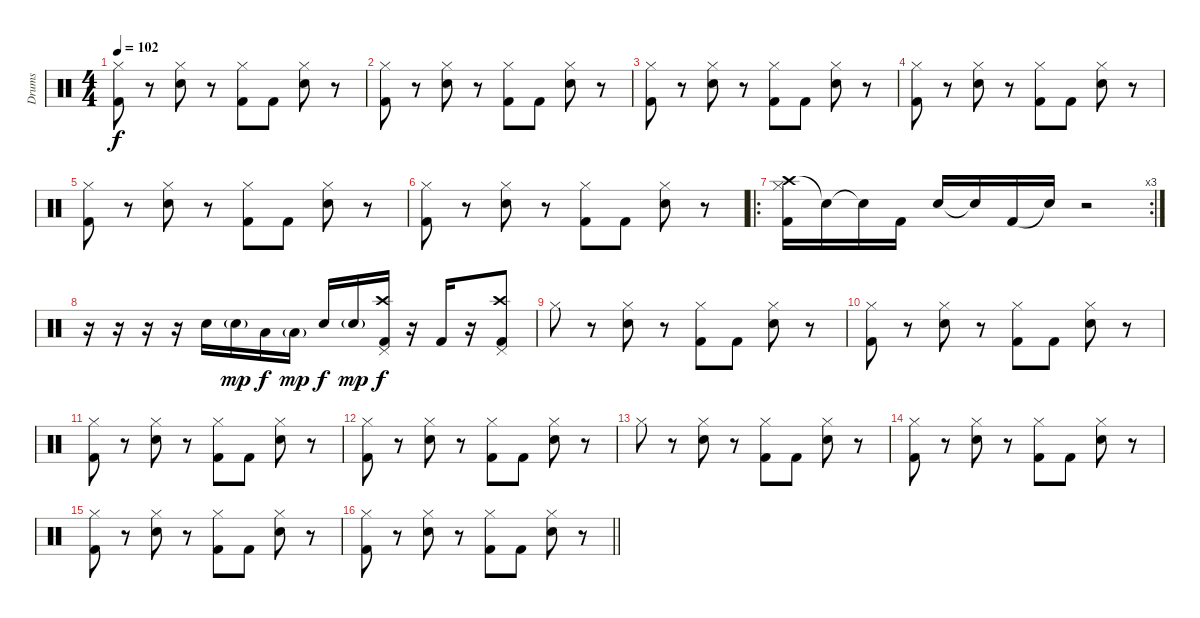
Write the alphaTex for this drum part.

\track ("Drums" "Drums") {instrument percussion}
\staff {score}
\articulation defaults
\ts (4 4)
\tempo 102
\clef neutral
\ks c
("Hi-Hat (closed)" "Kick (hit) 2").8{dy f} r.8 ("Hi-Hat (closed)" "Snare (hit) 2").8 r.8 ("Hi-Hat (closed)" "Kick (hit) 2").8 "Kick (hit) 2".8 ("Hi-Hat (closed)" "Snare (hit) 2").8 r.8 |
("Hi-Hat (closed)" "Kick (hit) 2").8 r.8 ("Hi-Hat (closed)" "Snare (hit) 2").8 r.8 ("Hi-Hat (closed)" "Kick (hit) 2").8 "Kick (hit) 2".8 ("Hi-Hat (closed)" "Snare (hit) 2").8 r.8 |
("Hi-Hat (closed)" "Kick (hit) 2").8 r.8 ("Hi-Hat (closed)" "Snare (hit) 2").8 r.8 ("Hi-Hat (closed)" "Kick (hit) 2").8 "Kick (hit) 2".8 ("Hi-Hat (closed)" "Snare (hit) 2").8 r.8 |
("Hi-Hat (closed)" "Kick (hit) 2").8 r.8 ("Hi-Hat (closed)" "Snare (hit) 2").8 r.8 ("Hi-Hat (closed)" "Kick (hit) 2").8 "Kick (hit) 2".8 ("Hi-Hat (closed)" "Snare (hit) 2").8 r.8 |
("Hi-Hat (closed)" "Kick (hit) 2").8 r.8 ("Hi-Hat (closed)" "Snare (hit) 2").8 r.8 ("Hi-Hat (closed)" "Kick (hit) 2").8 "Kick (hit) 2".8 ("Hi-Hat (closed)" "Snare (hit) 2").8 r.8 |
("Hi-Hat (closed)" "Kick (hit) 2").8 r.8 ("Hi-Hat (closed)" "Snare (hit) 2").8 r.8 ("Hi-Hat (closed)" "Kick (hit) 2").8 "Kick (hit) 2".8 ("Hi-Hat (closed)" "Snare (hit) 2").8 r.8 |
\ro
\rc 3
("Crash high (hit)" "Hi-Hat (closed)" "Kick (hit) 2").16 "Snare (hit)"{t}.16 "Snare (hit)"{t}.16 "Kick (hit) 2".16 "Snare (hit) 2".16 "Snare (hit)"{t}.16 "Kick (hit) 2".16 "Snare (hit)"{t}.16 r.2 |
r.16 r.16 r.16 r.16 "Snare (hit) 2".16 "Snare (hit) 2"{g}.16{dy mp} "Low Tom (hit)".16{dy f} "Low Tom (hit)"{g}.16{dy mp} "Snare (hit) 2".16{dy f} "Snare (hit) 2"{g}.16{dy mp} ("Crash high (hit)" "Pedal Hi-Hat (hit)" "Kick (hit) 2").16{dy f} r.16 "Kick (hit) 2".16 r.16 ("Crash high (hit)" "Pedal Hi-Hat (hit)" "Kick (hit) 2").8 |
"Hi-Hat (closed)".8 r.8 ("Hi-Hat (closed)" "Snare (hit) 2").8 r.8 ("Hi-Hat (closed)" "Kick (hit) 2").8 "Kick (hit) 2".8 ("Hi-Hat (closed)" "Snare (hit) 2").8 r.8 |
("Hi-Hat (closed)" "Kick (hit) 2").8 r.8 ("Hi-Hat (closed)" "Snare (hit) 2").8 r.8 ("Hi-Hat (closed)" "Kick (hit) 2").8 "Kick (hit) 2".8 ("Hi-Hat (closed)" "Snare (hit) 2").8 r.8 |
("Hi-Hat (closed)" "Kick (hit) 2").8 r.8 ("Hi-Hat (closed)" "Snare (hit) 2").8 r.8 ("Hi-Hat (closed)" "Kick (hit) 2").8 "Kick (hit) 2".8 ("Hi-Hat (closed)" "Snare (hit) 2").8 r.8 |
("Hi-Hat (closed)" "Kick (hit) 2").8 r.8 ("Hi-Hat (closed)" "Snare (hit) 2").8 r.8 ("Hi-Hat (closed)" "Kick (hit) 2").8 "Kick (hit) 2".8 ("Hi-Hat (closed)" "Snare (hit) 2").8 r.8 |
"Hi-Hat (closed)".8 r.8 ("Hi-Hat (closed)" "Snare (hit) 2").8 r.8 ("Hi-Hat (closed)" "Kick (hit) 2").8 "Kick (hit) 2".8 ("Hi-Hat (closed)" "Snare (hit) 2").8 r.8 |
("Hi-Hat (closed)" "Kick (hit) 2").8 r.8 ("Hi-Hat (closed)" "Snare (hit) 2").8 r.8 ("Hi-Hat (closed)" "Kick (hit) 2").8 "Kick (hit) 2".8 ("Hi-Hat (closed)" "Snare (hit) 2").8 r.8 |
("Hi-Hat (closed)" "Kick (hit) 2").8 r.8 ("Hi-Hat (closed)" "Snare (hit) 2").8 r.8 ("Hi-Hat (closed)" "Kick (hit) 2").8 "Kick (hit) 2".8 ("Hi-Hat (closed)" "Snare (hit) 2").8 r.8 |
\barLineRight lightlight
("Hi-Hat (closed)" "Kick (hit) 2").8 r.8 ("Hi-Hat (closed)" "Snare (hit) 2").8 r.8 ("Hi-Hat (closed)" "Kick (hit) 2").8 "Kick (hit) 2".8 ("Hi-Hat (closed)" "Snare (hit) 2").8 r.8
